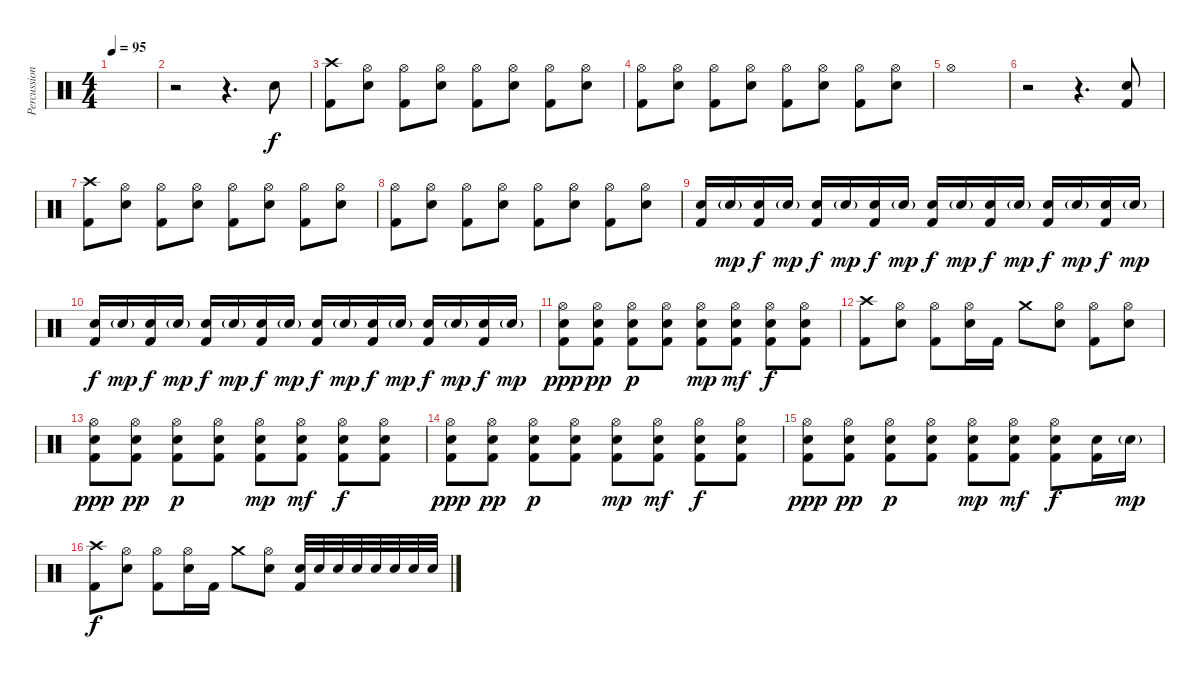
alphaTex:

\track ("Percussion" "Percussion") {instrument percussion}
\staff {score}
\articulation defaults
\ts (4 4)
\tempo 95
\clef neutral
\ks c
|
r.2 r.4{d} "Electric Snare (hit)".8 |
("Crash high (hit)" "Kick (hit) 2").8 ("Hi-Hat (open)" "Electric Snare (hit)").8 ("Hi-Hat (open)" "Kick (hit) 2").8 ("Hi-Hat (open)" "Electric Snare (hit)").8 ("Hi-Hat (open)" "Kick (hit) 2").8 ("Hi-Hat (open)" "Electric Snare (hit)").8 ("Hi-Hat (open)" "Kick (hit) 2").8 ("Hi-Hat (open)" "Electric Snare (hit)").8 |
("Hi-Hat (open)" "Kick (hit) 2").8 ("Hi-Hat (open)" "Electric Snare (hit)").8 ("Hi-Hat (open)" "Kick (hit) 2").8 ("Hi-Hat (open)" "Electric Snare (hit)").8 ("Hi-Hat (open)" "Kick (hit) 2").8 ("Hi-Hat (open)" "Electric Snare (hit)").8 ("Hi-Hat (open)" "Kick (hit) 2").8 ("Hi-Hat (open)" "Electric Snare (hit)").8 |
"Hi-Hat (open)".1 |
r.2 r.4{d} ("Electric Snare (hit)" "Kick (hit) 2").8 |
("Crash high (hit)" "Kick (hit) 2").8 ("Hi-Hat (open)" "Electric Snare (hit)").8 ("Hi-Hat (open)" "Kick (hit) 2").8 ("Hi-Hat (open)" "Electric Snare (hit)").8 ("Hi-Hat (open)" "Kick (hit) 2").8 ("Hi-Hat (open)" "Electric Snare (hit)").8 ("Hi-Hat (open)" "Kick (hit) 2").8 ("Hi-Hat (open)" "Electric Snare (hit)").8 |
("Hi-Hat (open)" "Kick (hit) 2").8 ("Hi-Hat (open)" "Electric Snare (hit)").8 ("Hi-Hat (open)" "Kick (hit) 2").8 ("Hi-Hat (open)" "Electric Snare (hit)").8 ("Hi-Hat (open)" "Kick (hit) 2").8 ("Hi-Hat (open)" "Electric Snare (hit)").8 ("Hi-Hat (open)" "Kick (hit) 2").8 ("Hi-Hat (open)" "Electric Snare (hit)").8 |
("Electric Snare (hit)" "Kick (hit) 2").16 "Electric Snare (hit)"{g}.16{dy mp} ("Electric Snare (hit)" "Kick (hit) 2").16{dy f} "Electric Snare (hit)"{g}.16{dy mp} ("Electric Snare (hit)" "Kick (hit) 2").16{dy f} "Electric Snare (hit)"{g}.16{dy mp} ("Electric Snare (hit)" "Kick (hit) 2").16{dy f} "Electric Snare (hit)"{g}.16{dy mp} ("Electric Snare (hit)" "Kick (hit) 2").16{dy f} "Electric Snare (hit)"{g}.16{dy mp} ("Electric Snare (hit)" "Kick (hit) 2").16{dy f} "Electric Snare (hit)"{g}.16{dy mp} ("Electric Snare (hit)" "Kick (hit) 2").16{dy f} "Electric Snare (hit)"{g}.16{dy mp} ("Electric Snare (hit)" "Kick (hit) 2").16{dy f} "Electric Snare (hit)"{g}.16{dy mp} |
("Electric Snare (hit)" "Kick (hit) 2").16{dy f} "Electric Snare (hit)"{g}.16{dy mp} ("Electric Snare (hit)" "Kick (hit) 2").16{dy f} "Electric Snare (hit)"{g}.16{dy mp} ("Electric Snare (hit)" "Kick (hit) 2").16{dy f} "Electric Snare (hit)"{g}.16{dy mp} ("Electric Snare (hit)" "Kick (hit) 2").16{dy f} "Electric Snare (hit)"{g}.16{dy mp} ("Electric Snare (hit)" "Kick (hit) 2").16{dy f} "Electric Snare (hit)"{g}.16{dy mp} ("Electric Snare (hit)" "Kick (hit) 2").16{dy f} "Electric Snare (hit)"{g}.16{dy mp} ("Electric Snare (hit)" "Kick (hit) 2").16{dy f} "Electric Snare (hit)"{g}.16{dy mp} ("Electric Snare (hit)" "Kick (hit) 2").16{dy f} "Electric Snare (hit)"{g}.16{dy mp} |
("Hi-Hat (open)" "Electric Snare (hit)" "Kick (hit) 2").8{dy ppp} ("Hi-Hat (open)" "Electric Snare (hit)" "Kick (hit) 2").8{dy pp} ("Hi-Hat (open)" "Electric Snare (hit)" "Kick (hit) 2").8{dy p} ("Hi-Hat (open)" "Electric Snare (hit)" "Kick (hit) 2").8 ("Hi-Hat (open)" "Electric Snare (hit)" "Kick (hit) 2").8{dy mp} ("Hi-Hat (open)" "Electric Snare (hit)" "Kick (hit) 2").8{dy mf} ("Hi-Hat (open)" "Electric Snare (hit)" "Kick (hit) 2").8{dy f} ("Hi-Hat (open)" "Electric Snare (hit)" "Kick (hit) 2").8 |
("Crash high (hit)" "Kick (hit) 2").8 ("Hi-Hat (open)" "Electric Snare (hit)").8 ("Hi-Hat (open)" "Kick (hit) 2").8 ("Hi-Hat (open)" "Electric Snare (hit)").16 "Kick (hit) 2".16 "Crash medium (hit)".8 ("Hi-Hat (open)" "Electric Snare (hit)").8 ("Hi-Hat (open)" "Kick (hit) 2").8 ("Hi-Hat (open)" "Electric Snare (hit)").8 |
("Hi-Hat (open)" "Electric Snare (hit)" "Kick (hit) 2").8{dy ppp} ("Hi-Hat (open)" "Electric Snare (hit)" "Kick (hit) 2").8{dy pp} ("Hi-Hat (open)" "Electric Snare (hit)" "Kick (hit) 2").8{dy p} ("Hi-Hat (open)" "Electric Snare (hit)" "Kick (hit) 2").8 ("Hi-Hat (open)" "Electric Snare (hit)" "Kick (hit) 2").8{dy mp} ("Hi-Hat (open)" "Electric Snare (hit)" "Kick (hit) 2").8{dy mf} ("Hi-Hat (open)" "Electric Snare (hit)" "Kick (hit) 2").8{dy f} ("Hi-Hat (open)" "Electric Snare (hit)" "Kick (hit) 2").8 |
("Hi-Hat (open)" "Electric Snare (hit)" "Kick (hit) 2").8{dy ppp} ("Hi-Hat (open)" "Electric Snare (hit)" "Kick (hit) 2").8{dy pp} ("Hi-Hat (open)" "Electric Snare (hit)" "Kick (hit) 2").8{dy p} ("Hi-Hat (open)" "Electric Snare (hit)" "Kick (hit) 2").8 ("Hi-Hat (open)" "Electric Snare (hit)" "Kick (hit) 2").8{dy mp} ("Hi-Hat (open)" "Electric Snare (hit)" "Kick (hit) 2").8{dy mf} ("Hi-Hat (open)" "Electric Snare (hit)" "Kick (hit) 2").8{dy f} ("Hi-Hat (open)" "Electric Snare (hit)" "Kick (hit) 2").8 |
("Hi-Hat (open)" "Electric Snare (hit)" "Kick (hit) 2").8{dy ppp} ("Hi-Hat (open)" "Electric Snare (hit)" "Kick (hit) 2").8{dy pp} ("Hi-Hat (open)" "Electric Snare (hit)" "Kick (hit) 2").8{dy p} ("Hi-Hat (open)" "Electric Snare (hit)" "Kick (hit) 2").8 ("Hi-Hat (open)" "Electric Snare (hit)" "Kick (hit) 2").8{dy mp} ("Hi-Hat (open)" "Electric Snare (hit)" "Kick (hit) 2").8{dy mf} ("Hi-Hat (open)" "Electric Snare (hit)" "Kick (hit) 2").8{dy f} ("Electric Snare (hit)" "Kick (hit) 2").16 "Electric Snare (hit)"{g}.16{dy mp} |
("Crash high (hit)" "Kick (hit) 2").8{dy f} ("Hi-Hat (open)" "Electric Snare (hit)").8 ("Hi-Hat (open)" "Kick (hit) 2").8 ("Hi-Hat (open)" "Electric Snare (hit)").16 "Kick (hit) 2".16 "Crash medium (hit)".8 ("Hi-Hat (open)" "Electric Snare (hit)").8 ("Electric Snare (hit)" "Kick (hit) 2").32 "Electric Snare (hit)".32 "Electric Snare (hit)".32 "Electric Snare (hit)".32 "Electric Snare (hit)".32 "Electric Snare (hit)".32 "Electric Snare (hit)".32 "Electric Snare (hit)".32
